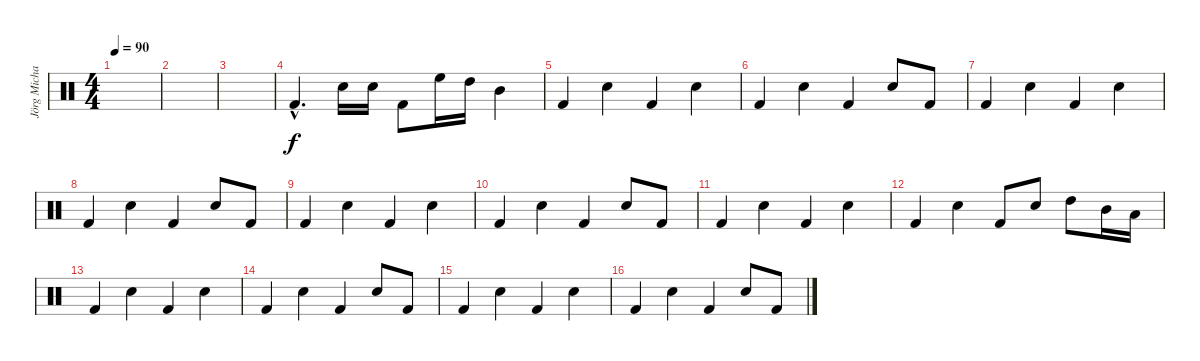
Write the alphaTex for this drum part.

\track ("Jörg Michael Drums" "Jörg Micha") {instrument percussion}
\staff {score}
\articulation defaults
\ts (4 4)
\tempo 90
\clef neutral
\ks c
|
|
|
"Kick (hit) 2"{hac}.4{d} "Electric Snare (hit)".16 "Electric Snare (hit)".16 "Kick (hit) 2".8 "High Floor Tom (hit)".16 "High Tom (hit)".16 "Mid Tom (hit)".4 |
"Kick (hit) 2".4 "Electric Snare (hit)".4 "Kick (hit) 2".4 "Electric Snare (hit)".4 |
"Kick (hit) 2".4 "Electric Snare (hit)".4 "Kick (hit) 2".4 "Electric Snare (hit)".8 "Kick (hit) 2".8 |
"Kick (hit) 2".4 "Electric Snare (hit)".4 "Kick (hit) 2".4 "Electric Snare (hit)".4 |
"Kick (hit) 2".4 "Electric Snare (hit)".4 "Kick (hit) 2".4 "Electric Snare (hit)".8 "Kick (hit) 2".8 |
"Kick (hit) 2".4 "Electric Snare (hit)".4 "Kick (hit) 2".4 "Electric Snare (hit)".4 |
"Kick (hit) 2".4 "Electric Snare (hit)".4 "Kick (hit) 2".4 "Electric Snare (hit)".8 "Kick (hit) 2".8 |
"Kick (hit) 2".4 "Electric Snare (hit)".4 "Kick (hit) 2".4 "Electric Snare (hit)".4 |
"Kick (hit) 2".4 "Electric Snare (hit)".4 "Kick (hit) 2".8 "Electric Snare (hit)".8 "High Tom (hit)".8 "Mid Tom (hit)".16 "Low Tom (hit)".16 |
"Kick (hit) 2".4 "Electric Snare (hit)".4 "Kick (hit) 2".4 "Electric Snare (hit)".4 |
"Kick (hit) 2".4 "Electric Snare (hit)".4 "Kick (hit) 2".4 "Electric Snare (hit)".8 "Kick (hit) 2".8 |
"Kick (hit) 2".4 "Electric Snare (hit)".4 "Kick (hit) 2".4 "Electric Snare (hit)".4 |
"Kick (hit) 2".4 "Electric Snare (hit)".4 "Kick (hit) 2".4 "Electric Snare (hit)".8 "Kick (hit) 2".8
